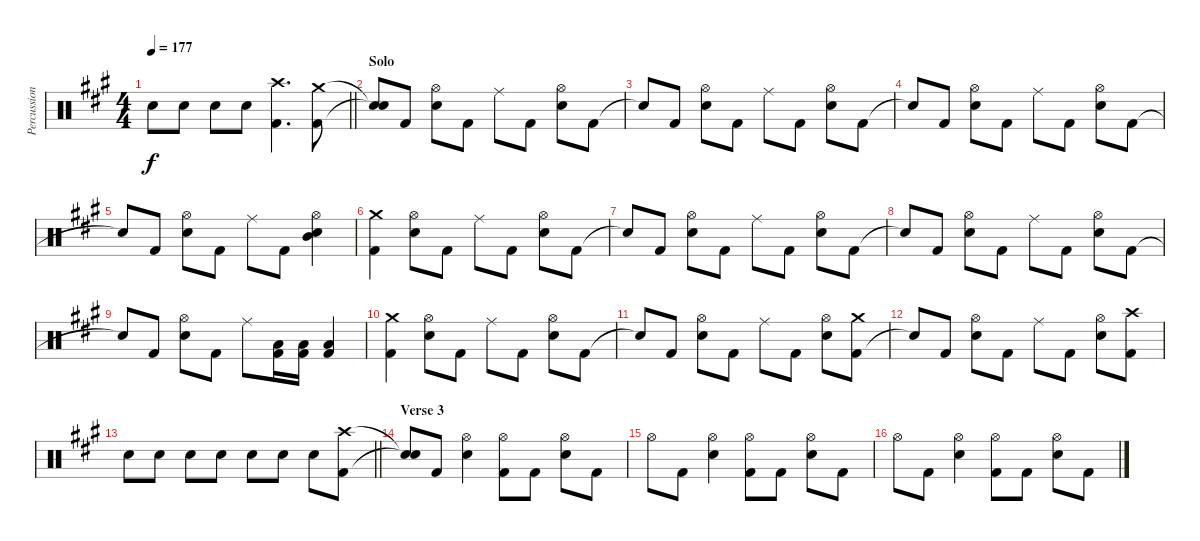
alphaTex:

\track ("Percussion" "Percussion") {instrument percussion}
\staff {score}
\articulation defaults
\ts (4 4)
\tempo 177
\clef neutral
\barLineRight lightlight
\ks a "Snare (hit) 2".8{dy f} "Snare (hit) 2".8 "Snare (hit) 2".8 "Snare (hit) 2".8
("Kick (hit) 2" "Crash high (hit)").4{d} ("Kick (hit) 2" "Crash medium (hit)").8 |
\section ("" "Solo")
("Snare (hit)"{t} "Snare (hit)"{t}).8 "Kick (hit) 2".8 ("Hi-Hat (open)" "Snare (hit) 2").8 "Kick (hit) 2".8 "Ride (middle)".8 "Kick (hit) 2".8 ("Hi-Hat (open)" "Snare (hit) 2").8 "Kick (hit) 2".8 |
"Snare (hit)"{t}.8 "Kick (hit) 2".8 ("Hi-Hat (open)" "Snare (hit) 2").8 "Kick (hit) 2".8 "Ride (middle)".8 "Kick (hit) 2".8 ("Hi-Hat (open)" "Snare (hit) 2").8 "Kick (hit) 2".8 |
"Snare (hit)"{t}.8 "Kick (hit) 2".8 ("Hi-Hat (open)" "Snare (hit) 2").8 "Kick (hit) 2".8 "Ride (middle)".8 "Kick (hit) 2".8 ("Hi-Hat (open)" "Snare (hit) 2").8 "Kick (hit) 2".8 |
"Snare (hit)"{t}.8 "Kick (hit) 2".8 ("Hi-Hat (open)" "Snare (hit) 2").8 "Kick (hit) 2".8 "Ride (middle)".8 "Kick (hit) 2".8 ("Mid Tom (hit)" "Hi-Hat (open)" "Snare (hit) 2").4 |
("Kick (hit) 2" "Crash medium (hit)").4 ("Hi-Hat (open)" "Snare (hit) 2").8 "Kick (hit) 2".8 "Ride (middle)".8 "Kick (hit) 2".8 ("Hi-Hat (open)" "Snare (hit) 2").8 "Kick (hit) 2".8 |
"Snare (hit)"{t}.8 "Kick (hit) 2".8 ("Hi-Hat (open)" "Snare (hit) 2").8 "Kick (hit) 2".8 "Ride (middle)".8 "Kick (hit) 2".8 ("Hi-Hat (open)" "Snare (hit) 2").8 "Kick (hit) 2".8 |
"Snare (hit)"{t}.8 "Kick (hit) 2".8 ("Hi-Hat (open)" "Snare (hit) 2").8 "Kick (hit) 2".8 "Ride (middle)".8 "Kick (hit) 2".8 ("Hi-Hat (open)" "Snare (hit) 2").8 "Kick (hit) 2".8 |
"Snare (hit)"{t}.8 "Kick (hit) 2".8 ("Hi-Hat (open)" "Snare (hit) 2").8 "Kick (hit) 2".8 "Ride (middle)".8 ("Low Tom (hit)" "Kick (hit) 2").16 ("Low Tom (hit)" "Kick (hit) 2").16 ("Low Tom (hit)" "Kick (hit) 2").4 |
("Kick (hit) 2" "Crash medium (hit)").4 ("Hi-Hat (open)" "Snare (hit) 2").8 "Kick (hit) 2".8 "Ride (middle)".8 "Kick (hit) 2".8 ("Hi-Hat (open)" "Snare (hit) 2").8 "Kick (hit) 2".8 |
"Snare (hit)"{t}.8 "Kick (hit) 2".8 ("Hi-Hat (open)" "Snare (hit) 2").8 "Kick (hit) 2".8 "Ride (middle)".8 "Kick (hit) 2".8 ("Hi-Hat (open)" "Snare (hit) 2").8 ("Kick (hit) 2" "Crash medium (hit)").8 |
"Snare (hit)"{t}.8 "Kick (hit) 2".8 ("Hi-Hat (open)" "Snare (hit) 2").8 "Kick (hit) 2".8 "Ride (middle)".8 "Kick (hit) 2".8 ("Hi-Hat (open)" "Snare (hit) 2").8 ("Kick (hit) 2" "Crash high (hit)").8 |
\barLineRight lightlight "Snare (hit) 2".8 "Snare (hit) 2".8 "Snare (hit) 2".8 "Snare (hit) 2".8 "Snare (hit) 2".8 "Snare (hit) 2".8 "Snare (hit) 2".8
("Kick (hit) 2" "Crash high (hit)").8 |
\section ("" "Verse 3")
("Snare (hit)"{t} "Snare (hit)"{t}).8 "Kick (hit) 2".8 ("Hi-Hat (open)" "Snare (hit) 2").4 ("Hi-Hat (open)" "Kick (hit) 2").8 "Kick (hit) 2".8 ("Hi-Hat (open)" "Snare (hit) 2").8 "Kick (hit) 2".8 |
"Hi-Hat (open)".8 "Kick (hit) 2".8 ("Hi-Hat (open)" "Snare (hit) 2").4 ("Hi-Hat (open)" "Kick (hit) 2").8 "Kick (hit) 2".8 ("Hi-Hat (open)" "Snare (hit) 2").8 "Kick (hit) 2".8 |
"Hi-Hat (open)".8 "Kick (hit) 2".8 ("Hi-Hat (open)" "Snare (hit) 2").4 ("Hi-Hat (open)" "Kick (hit) 2").8 "Kick (hit) 2".8 ("Hi-Hat (open)" "Snare (hit) 2").8 "Kick (hit) 2".8
